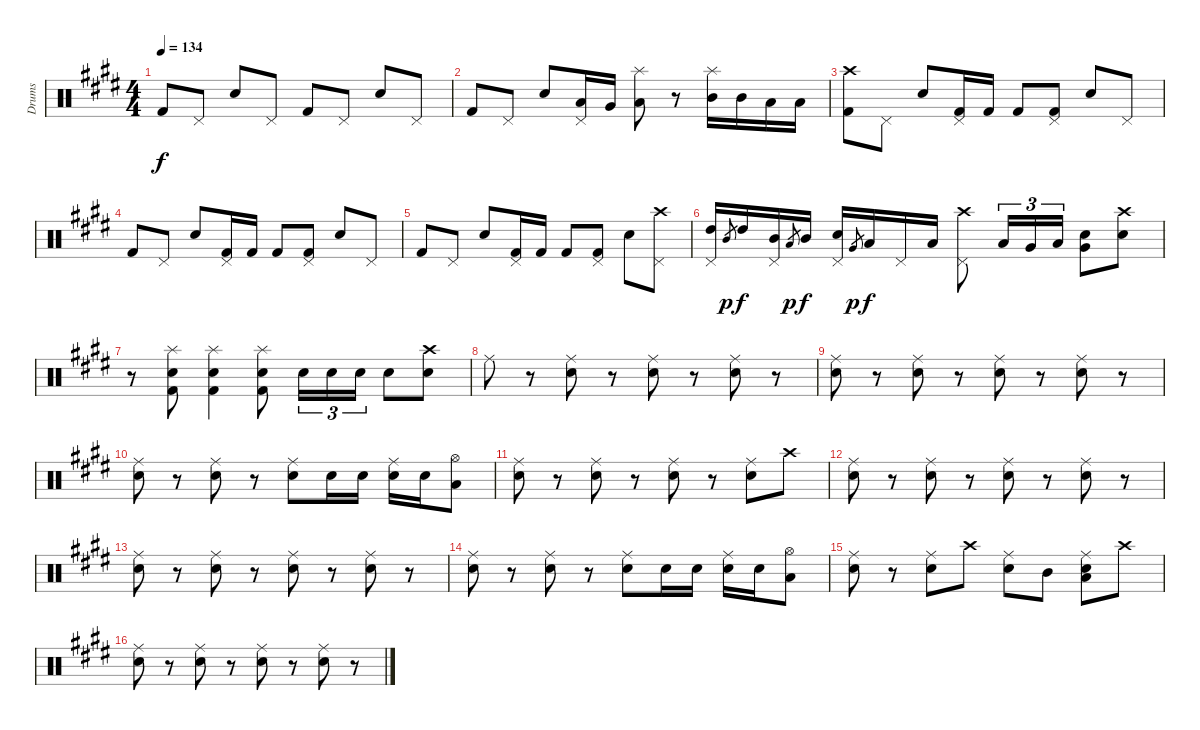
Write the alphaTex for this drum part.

\track ("Drums" "Drums") {instrument percussion}
\staff {score}
\articulation defaults
\ts (4 4)
\tempo 134
\clef neutral
\ks e "Kick (hit) 2".8{dy f} "Pedal Hi-Hat (hit)".8 "Electric Snare (hit)".8 "Pedal Hi-Hat (hit)".8 "Kick (hit) 2".8 "Pedal Hi-Hat (hit)".8 "Electric Snare (hit)".8 "Pedal Hi-Hat (hit)".8
|
"Kick (hit) 2".8 "Pedal Hi-Hat (hit)".8 "Electric Snare (hit)".8 ("Low Tom (hit)" "Pedal Hi-Hat (hit)").16 "Very Low Tom (hit)".16 ("Low Floor Tom (hit)" "Splash (hit)").8 r.8 ("Splash (hit)" "Mid Tom (hit)").16 "Mid Tom (hit)".16 "Low Tom (hit)".16 "Low Tom (hit)".16 |
("Crash high (hit)" "Kick (hit) 2").8 "Pedal Hi-Hat (hit)".8 "Electric Snare (hit)".8 ("Kick (hit) 2" "Pedal Hi-Hat (hit)").16 "Kick (hit) 2".16 "Kick (hit) 2".8 ("Kick (hit) 2" "Pedal Hi-Hat (hit)").8 "Electric Snare (hit)".8 "Pedal Hi-Hat (hit)".8 |
"Kick (hit) 2".8 "Pedal Hi-Hat (hit)".8 "Electric Snare (hit)".8 ("Kick (hit) 2" "Pedal Hi-Hat (hit)").16 "Kick (hit) 2".16 "Kick (hit) 2".8 ("Kick (hit) 2" "Pedal Hi-Hat (hit)").8 "Electric Snare (hit)".8 "Pedal Hi-Hat (hit)".8 |
"Kick (hit) 2".8 "Pedal Hi-Hat (hit)".8 "Electric Snare (hit)".8 ("Kick (hit) 2" "Pedal Hi-Hat (hit)").16 "Kick (hit) 2".16 "Kick (hit) 2".8 ("Kick (hit) 2" "Pedal Hi-Hat (hit)").8 "Electric Snare (hit)".8 ("Crash high (hit)" "Pedal Hi-Hat (hit)").8 |
("High Tom (hit)" "Pedal Hi-Hat (hit)").16 "Mid Tom (hit)".8{gr dy p} "High Tom (hit)".16{dy f} ("Mid Tom (hit)" "Pedal Hi-Hat (hit)").16 "Low Tom (hit)".8{gr dy p} "Mid Tom (hit)".16{dy f} ("Electric Snare (hit)" "Pedal Hi-Hat (hit)").16 "Very Low Tom (hit)".8{gr dy p} "Low Tom (hit)".16{dy f} "Pedal Hi-Hat (hit)".16 "Low Tom (hit)".16 ("Pedal Hi-Hat (hit)" "Crash high (hit)").8 "Low Tom (hit)".16{tu (3 2)} "Very Low Tom (hit)".16{tu (3 2)} "Low Floor Tom (hit)".16{tu (3 2)} ("Very Low Tom (hit)" "Electric Snare (hit)").8 ("Crash high (hit)" "Electric Snare (hit)").8 |
r.8 ("Electric Snare (hit)" "Splash (hit)" "Kick (hit) 2").8 ("Electric Snare (hit)" "Splash (hit)" "Kick (hit) 2").4 ("Electric Snare (hit)" "Splash (hit)" "Kick (hit) 2").8 "Electric Snare (hit)".16{tu (3 2)} "Electric Snare (hit)".16{tu (3 2)} "Electric Snare (hit)".16{tu (3 2)} "Electric Snare (hit)".8 ("Crash high (hit)" "Electric Snare (hit)").8 |
"Ride (middle)".8 r.8 ("Ride (middle)" "Electric Snare (hit)").8 r.8 ("Ride (middle)" "Electric Snare (hit)").8 r.8 ("Ride (middle)" "Electric Snare (hit)").8 r.8 |
("Ride (middle)" "Electric Snare (hit)").8 r.8 ("Ride (middle)" "Electric Snare (hit)").8 r.8 ("Ride (middle)" "Electric Snare (hit)").8 r.8 ("Ride (middle)" "Electric Snare (hit)").8 r.8 |
("Ride (middle)" "Electric Snare (hit)").8 r.8 ("Ride (middle)" "Electric Snare (hit)").8 r.8 ("Ride (middle)" "Electric Snare (hit)").8 "Electric Snare (hit)".16{volume 8} "Electric Snare (hit)".16 ("Ride (middle)" "Electric Snare (hit)").16 "Electric Snare (hit)".16 ("Hi-Hat (open)" "Low Tom (hit)").8{volume 10} |
("Ride (middle)" "Electric Snare (hit)").8 r.8 ("Ride (middle)" "Electric Snare (hit)").8 r.8 ("Ride (middle)" "Electric Snare (hit)").8 r.8 ("Ride (middle)" "Electric Snare (hit)").8 "Crash high (hit)".8 |
("Ride (middle)" "Electric Snare (hit)").8 r.8 ("Ride (middle)" "Electric Snare (hit)").8 r.8 ("Ride (middle)" "Electric Snare (hit)").8 r.8 ("Ride (middle)" "Electric Snare (hit)").8 r.8 |
("Ride (middle)" "Electric Snare (hit)").8 r.8 ("Ride (middle)" "Electric Snare (hit)").8 r.8 ("Ride (middle)" "Electric Snare (hit)").8 r.8 ("Ride (middle)" "Electric Snare (hit)").8 r.8 |
("Ride (middle)" "Electric Snare (hit)").8 r.8 ("Ride (middle)" "Electric Snare (hit)").8 r.8 ("Ride (middle)" "Electric Snare (hit)").8 "Electric Snare (hit)".16{volume 8} "Electric Snare (hit)".16 ("Ride (middle)" "Electric Snare (hit)").16 "Electric Snare (hit)".16 ("Hi-Hat (open)" "Low Tom (hit)").8{volume 10} |
("Ride (middle)" "Electric Snare (hit)").8 r.8 ("Ride (middle)" "Electric Snare (hit)").8 "Crash high (hit)".8 ("Ride (middle)" "Electric Snare (hit)").8 "Mid Tom (hit)".8 ("Ride (middle)" "Low Tom (hit)" "Electric Snare (hit)").8 "Crash high (hit)".8 |
("Ride (middle)" "Electric Snare (hit)").8 r.8 ("Ride (middle)" "Electric Snare (hit)").8 r.8 ("Ride (middle)" "Electric Snare (hit)").8 r.8 ("Ride (middle)" "Electric Snare (hit)").8 r.8
